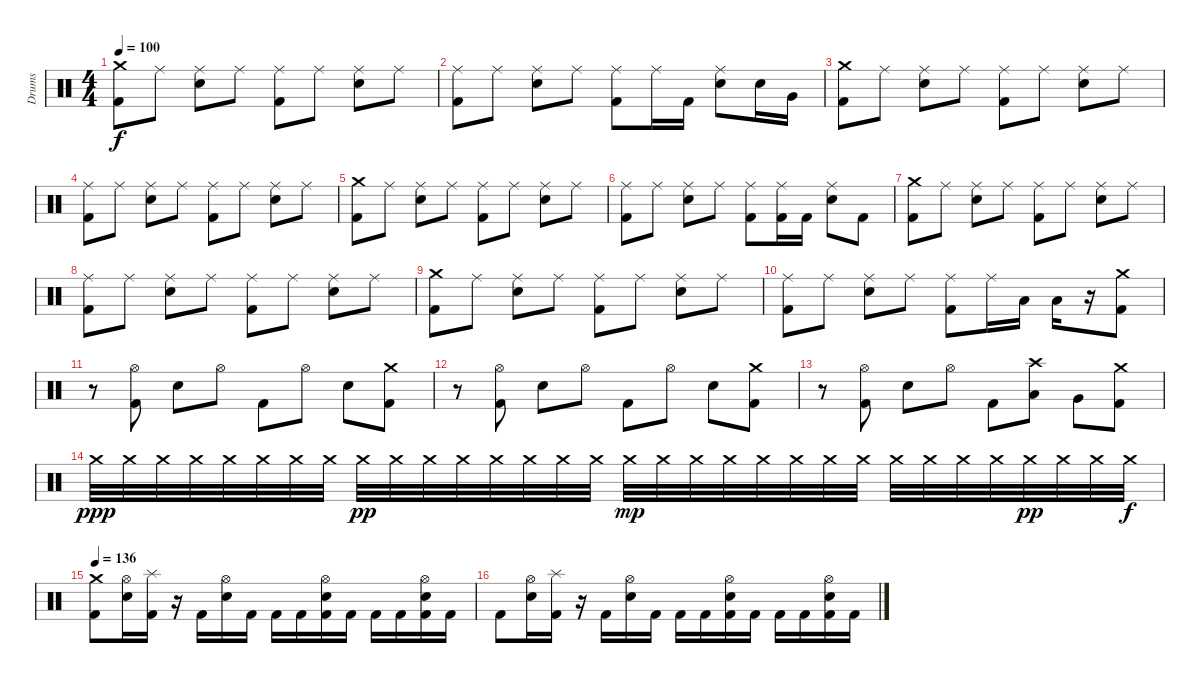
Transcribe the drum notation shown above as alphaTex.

\track ("Drums" "Drums") {instrument percussion}
\staff {score}
\articulation defaults
\ts (4 4)
\tempo 100
\clef neutral
\ks c
("Crash medium (hit)" "Kick (hit) 2").8{dy f} "Ride (middle)".8 ("Ride (middle)" "Electric Snare (hit)").8 "Ride (middle)".8 ("Ride (middle)" "Kick (hit) 2").8 "Ride (middle)".8 ("Ride (middle)" "Electric Snare (hit)").8 "Ride (middle)".8 |
("Ride (middle)" "Kick (hit) 2").8 "Ride (middle)".8 ("Ride (middle)" "Electric Snare (hit)").8 "Ride (middle)".8 ("Ride (middle)" "Kick (hit) 2").8 "Ride (middle)".16 "Kick (hit) 2".16 ("Ride (middle)" "Electric Snare (hit)").8 "Electric Snare (hit)".16 "Very Low Tom (hit)".16 |
("Crash medium (hit)" "Kick (hit) 2").8 "Ride (middle)".8 ("Ride (middle)" "Electric Snare (hit)").8 "Ride (middle)".8 ("Ride (middle)" "Kick (hit) 2").8 "Ride (middle)".8 ("Ride (middle)" "Electric Snare (hit)").8 "Ride (middle)".8 |
("Ride (middle)" "Kick (hit) 2").8 "Ride (middle)".8 ("Ride (middle)" "Electric Snare (hit)").8 "Ride (middle)".8 ("Ride (middle)" "Kick (hit) 2").8 "Ride (middle)".8 ("Ride (middle)" "Electric Snare (hit)").8 "Ride (middle)".8 |
("Crash medium (hit)" "Kick (hit) 2").8 "Ride (middle)".8 ("Ride (middle)" "Electric Snare (hit)").8 "Ride (middle)".8 ("Ride (middle)" "Kick (hit) 2").8 "Ride (middle)".8 ("Ride (middle)" "Electric Snare (hit)").8 "Ride (middle)".8 |
("Ride (middle)" "Kick (hit) 2").8 "Ride (middle)".8 ("Ride (middle)" "Electric Snare (hit)").8 "Ride (middle)".8 ("Ride (middle)" "Kick (hit) 2").8 ("Ride (middle)" "Kick (hit) 2").16 "Kick (hit) 2".16 ("Ride (middle)" "Electric Snare (hit)").8 "Kick (hit) 2".8 |
("Crash medium (hit)" "Kick (hit) 2").8 "Ride (middle)".8 ("Ride (middle)" "Electric Snare (hit)").8 "Ride (middle)".8 ("Ride (middle)" "Kick (hit) 2").8 "Ride (middle)".8 ("Ride (middle)" "Electric Snare (hit)").8 "Ride (middle)".8 |
("Ride (middle)" "Kick (hit) 2").8 "Ride (middle)".8 ("Ride (middle)" "Electric Snare (hit)").8 "Ride (middle)".8 ("Ride (middle)" "Kick (hit) 2").8 "Ride (middle)".8 ("Ride (middle)" "Electric Snare (hit)").8 "Ride (middle)".8 |
("Crash medium (hit)" "Kick (hit) 2").8 "Ride (middle)".8 ("Ride (middle)" "Electric Snare (hit)").8 "Ride (middle)".8 ("Ride (middle)" "Kick (hit) 2").8 "Ride (middle)".8 ("Ride (middle)" "Electric Snare (hit)").8 "Ride (middle)".8 |
("Ride (middle)" "Kick (hit) 2").8 "Ride (middle)".8 ("Ride (middle)" "Electric Snare (hit)").8 "Ride (middle)".8 ("Ride (middle)" "Kick (hit) 2").8 "Ride (middle)".16 "Low Tom (hit)".16 "Low Tom (hit)".16 r.16 ("Crash medium (hit)" "Kick (hit) 2").8 |
r.8 ("Hi-Hat (open)" "Kick (hit) 2").8 "Electric Snare (hit)".8 "Hi-Hat (open)".8 "Kick (hit) 2".8 "Hi-Hat (open)".8 "Electric Snare (hit)".8 ("Crash medium (hit)" "Kick (hit) 2").8 |
r.8 ("Hi-Hat (open)" "Kick (hit) 2").8 "Electric Snare (hit)".8 "Hi-Hat (open)".8 "Kick (hit) 2".8 "Hi-Hat (open)".8 "Electric Snare (hit)".8 ("Crash medium (hit)" "Kick (hit) 2").8 |
r.8 ("Hi-Hat (open)" "Kick (hit) 2").8 "Electric Snare (hit)".8 "Hi-Hat (open)".8 "Kick (hit) 2".8 ("Crash high (hit)" "Low Tom (hit)").8 "Very Low Tom (hit)".8 ("Crash medium (hit)" "Kick (hit) 2").8 |
"Crash medium (hit)".32{dy ppp} "Crash medium (hit)".32 "Crash medium (hit)".32 "Crash medium (hit)".32 "Crash medium (hit)".32 "Crash medium (hit)".32 "Crash medium (hit)".32 "Crash medium (hit)".32 "Crash medium (hit)".32{dy pp} "Crash medium (hit)".32 "Crash medium (hit)".32 "Crash medium (hit)".32 "Crash medium (hit)".32 "Crash medium (hit)".32 "Crash medium (hit)".32 "Crash medium (hit)".32 "Crash medium (hit)".32{dy mp} "Crash medium (hit)".32 "Crash medium (hit)".32 "Crash medium (hit)".32 "Crash medium (hit)".32 "Crash medium (hit)".32 "Crash medium (hit)".32 "Crash medium (hit)".32 "Crash medium (hit)".32 "Crash medium (hit)".32 "Crash medium (hit)".32 "Crash medium (hit)".32 "Crash medium (hit)".32{dy pp} "Crash medium (hit)".32 "Crash medium (hit)".32 "Crash medium (hit)".32{dy f} |
\tempo 136
("Crash medium (hit)" "Kick (hit) 2").8 ("Hi-Hat (open)" "Electric Snare (hit)").16 ("Splash (hit)" "Kick (hit) 2").16 r.16 "Kick (hit) 2".16 ("Hi-Hat (open)" "Electric Snare (hit)").16 "Kick (hit) 2".16 "Kick (hit) 2".16 "Kick (hit) 2".16 ("Hi-Hat (open)" "Electric Snare (hit)" "Kick (hit) 2").16 "Kick (hit) 2".16 "Kick (hit) 2".16 "Kick (hit) 2".16 ("Hi-Hat (open)" "Electric Snare (hit)" "Kick (hit) 2").16 "Kick (hit) 2".16 |
"Kick (hit) 2".8 ("Hi-Hat (open)" "Electric Snare (hit)").16 ("Splash (hit)" "Kick (hit) 2").16 r.16 "Kick (hit) 2".16 ("Hi-Hat (open)" "Electric Snare (hit)").16 "Kick (hit) 2".16 "Kick (hit) 2".16 "Kick (hit) 2".16 ("Hi-Hat (open)" "Electric Snare (hit)" "Kick (hit) 2").16 "Kick (hit) 2".16 "Kick (hit) 2".16 "Kick (hit) 2".16 ("Hi-Hat (open)" "Electric Snare (hit)" "Kick (hit) 2").16 "Kick (hit) 2".16
